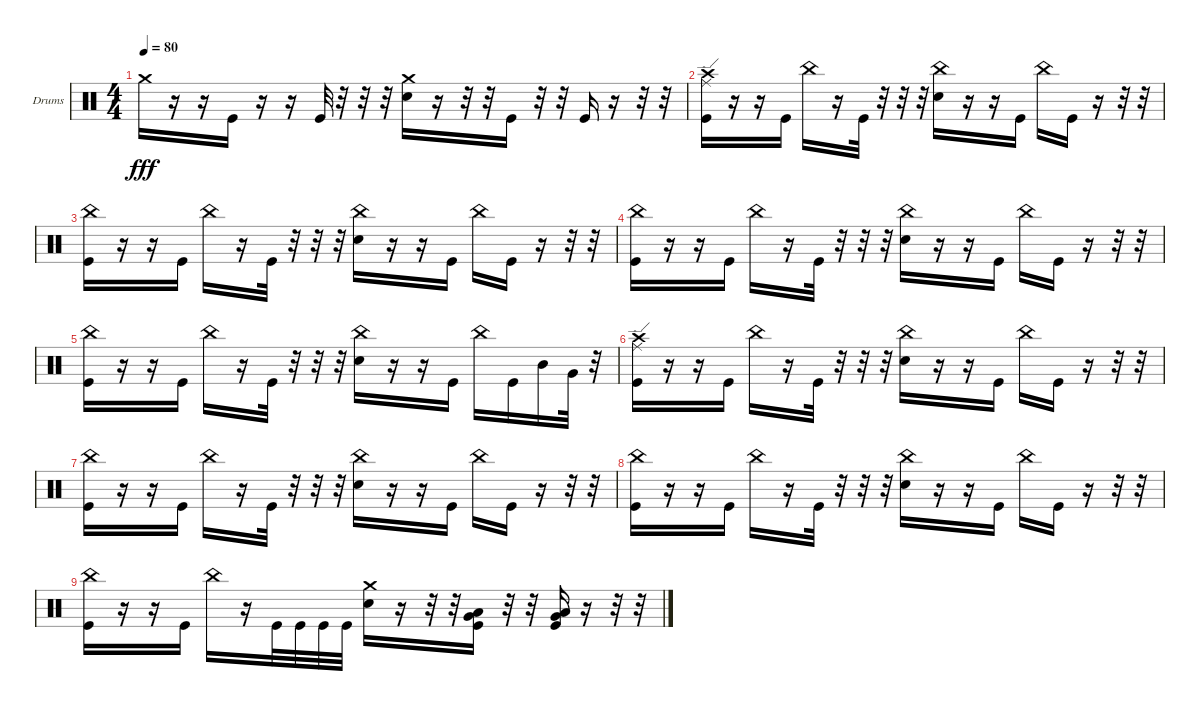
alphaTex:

\bracketExtendMode groupsimilarinstruments
\firstSystemTrackNameOrientation horizontal
\otherSystemsTrackNameOrientation horizontal
\track ("Drumkit" "Drums") {instrument percussion}
\staff {score}
\articulation defaults
\ts (4 4)
\tempo 80
\clef neutral
\ks c "Crash medium (hit)".16{dy fff}
r.16 r.16 "Kick (hit)".16 r.16 r.16 "Kick (hit)".32 r.32 r.32 r.32 ("Snare (hit) 2" "Crash medium (hit)").16 r.16 r.32 r.32 "Kick (hit)".16 r.32 r.32 "Kick (hit)".16 r.16 r.32 r.32 |
("Crash high (hit)" "Kick (hit)" "Ride (edge)").16 r.16 r.16 "Kick (hit)".16 "China (hit)".16 r.16 "Kick (hit)".32 r.32 r.32 r.32 ("Snare (hit) 2" "China (hit)").16 r.16 r.16 "Kick (hit)".16 "China (hit)".16 "Kick (hit)".16 r.16 r.32 r.32 |
("Kick (hit)" "China (hit)").16 r.16 r.16 "Kick (hit)".16 "China (hit)".16 r.16 "Kick (hit)".32 r.32 r.32 r.32 ("Snare (hit) 2" "China (hit)").16 r.16 r.16 "Kick (hit)".16 "China (hit)".16 "Kick (hit)".16 r.16 r.32 r.32 |
("Kick (hit)" "China (hit)").16 r.16 r.16 "Kick (hit)".16 "China (hit)".16 r.16 "Kick (hit)".32 r.32 r.32 r.32 ("Snare (hit) 2" "China (hit)").16 r.16 r.16 "Kick (hit)".16 "China (hit)".16 "Kick (hit)".16 r.16 r.32 r.32 |
("Kick (hit)" "China (hit)").16 r.16 r.16 "Kick (hit)".16 "China (hit)".16 r.16 "Kick (hit)".32 r.32 r.32 r.32 ("Snare (hit) 2" "China (hit)").16 r.16 r.16 "Kick (hit)".16 "China (hit)".16 "Kick (hit)".16 "Mid Tom (hit)".16 "Very Low Tom (hit)".32 r.32 |
("Crash high (hit)" "Kick (hit)" "Ride (edge)").16 r.16 r.16 "Kick (hit)".16 "China (hit)".16 r.16 "Kick (hit)".32 r.32 r.32 r.32 ("Snare (hit) 2" "China (hit)").16 r.16 r.16 "Kick (hit)".16 "China (hit)".16 "Kick (hit)".16 r.16 r.32 r.32 |
("Kick (hit)" "China (hit)").16 r.16 r.16 "Kick (hit)".16 "China (hit)".16 r.16 "Kick (hit)".32 r.32 r.32 r.32 ("Snare (hit) 2" "China (hit)").16 r.16 r.16 "Kick (hit)".16 "China (hit)".16 "Kick (hit)".16 r.16 r.32 r.32 |
("Kick (hit)" "China (hit)").16 r.16 r.16 "Kick (hit)".16 "China (hit)".16 r.16 "Kick (hit)".32 r.32 r.32 r.32 ("Snare (hit) 2" "China (hit)").16 r.16 r.16 "Kick (hit)".16 "China (hit)".16 "Kick (hit)".16 r.16 r.32 r.32 |
("China (hit)" "Kick (hit)").16 r.16 r.16 "Kick (hit)".16 "China (hit)".16 r.16 "Kick (hit)".32 "Kick (hit)".32 "Kick (hit)".32 "Kick (hit)".32 ("Snare (hit) 2" "Crash medium (hit)").16 r.16 r.32 r.32 ("Kick (hit)" "Very Low Tom (hit)" "Low Tom (hit)").16 r.32 r.32 ("Kick (hit)" "Very Low Tom (hit)" "Low Tom (hit)").16 r.16 r.32 r.32
